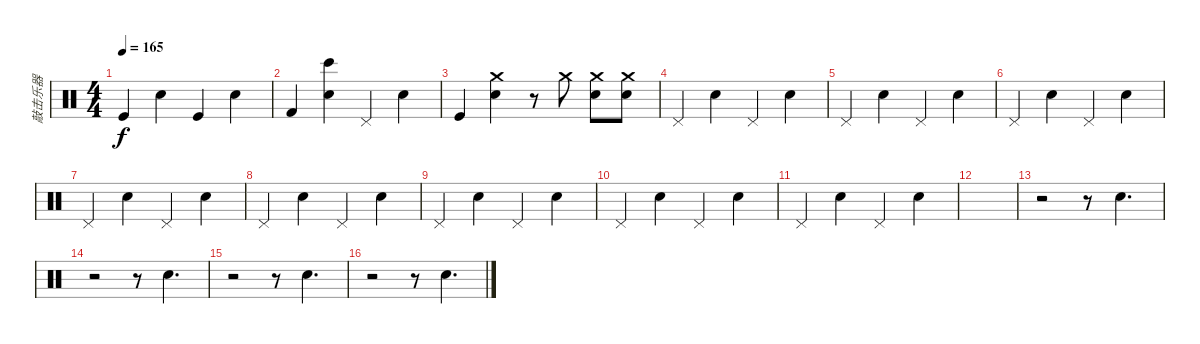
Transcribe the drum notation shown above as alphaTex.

\track ("敲击乐器" "敲击乐器") {instrument percussion}
\staff {score}
\articulation defaults
\ts (4 4)
\tempo 165
\clef neutral
\ks c "Kick (hit)".4{dy f} "Snare (hit) 2".4 "Kick (hit)".4 "Snare (hit) 2".4
|
"Kick (hit) 2".4 ("Bongo High (hit)" "Snare (hit) 2").4 "Pedal Hi-Hat (hit)".4 "Snare (hit) 2".4 |
"Kick (hit)".4 ("Snare (hit) 2" "Crash medium (hit)").4 r.8 "Crash medium (hit)".8 ("Snare (hit) 2" "Crash medium (hit)").8 ("Snare (hit) 2" "Crash medium (hit)").8 |
"Pedal Hi-Hat (hit)".4 "Snare (hit) 2".4 "Pedal Hi-Hat (hit)".4 "Snare (hit) 2".4 |
"Pedal Hi-Hat (hit)".4 "Snare (hit) 2".4 "Pedal Hi-Hat (hit)".4 "Snare (hit) 2".4 |
"Pedal Hi-Hat (hit)".4 "Snare (hit) 2".4 "Pedal Hi-Hat (hit)".4 "Snare (hit) 2".4 |
"Pedal Hi-Hat (hit)".4 "Snare (hit) 2".4 "Pedal Hi-Hat (hit)".4 "Snare (hit) 2".4 |
"Pedal Hi-Hat (hit)".4 "Snare (hit) 2".4 "Pedal Hi-Hat (hit)".4 "Snare (hit) 2".4 |
"Pedal Hi-Hat (hit)".4 "Snare (hit) 2".4 "Pedal Hi-Hat (hit)".4 "Snare (hit) 2".4 |
"Pedal Hi-Hat (hit)".4 "Snare (hit) 2".4 "Pedal Hi-Hat (hit)".4 "Snare (hit) 2".4 |
"Pedal Hi-Hat (hit)".4 "Snare (hit) 2".4 "Pedal Hi-Hat (hit)".4 "Snare (hit) 2".4 |
|
r.2 r.8 "Snare (hit) 2".4{d} |
r.2 r.8 "Snare (hit) 2".4{d} |
r.2 r.8 "Snare (hit) 2".4{d} |
r.2 r.8 "Snare (hit) 2".4{d}
